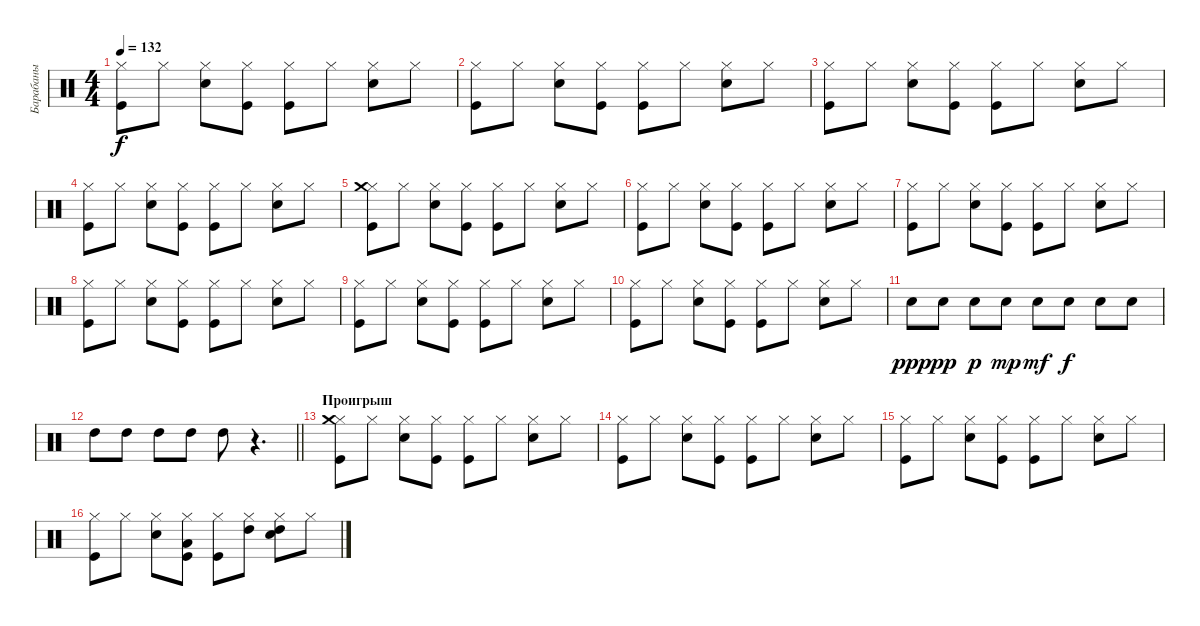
\track ("Барабаны" "Барабаны") {instrument percussion}
\staff {score}
\articulation defaults
\ts (4 4)
\tempo 132
\clef neutral
\ks c
("Kick (hit)" "Hi-Hat (closed)").8{dy f} "Hi-Hat (closed)".8 ("Snare (hit) 2" "Hi-Hat (closed)").8 ("Kick (hit)" "Hi-Hat (closed)").8 ("Kick (hit)" "Hi-Hat (closed)").8 "Hi-Hat (closed)".8 ("Snare (hit) 2" "Hi-Hat (closed)").8 "Hi-Hat (closed)".8 |
("Kick (hit)" "Hi-Hat (closed)").8 "Hi-Hat (closed)".8 ("Snare (hit) 2" "Hi-Hat (closed)").8 ("Kick (hit)" "Hi-Hat (closed)").8 ("Kick (hit)" "Hi-Hat (closed)").8 "Hi-Hat (closed)".8 ("Snare (hit) 2" "Hi-Hat (closed)").8 "Hi-Hat (closed)".8 |
("Kick (hit)" "Hi-Hat (closed)").8 "Hi-Hat (closed)".8 ("Snare (hit) 2" "Hi-Hat (closed)").8 ("Kick (hit)" "Hi-Hat (closed)").8 ("Kick (hit)" "Hi-Hat (closed)").8 "Hi-Hat (closed)".8 ("Snare (hit) 2" "Hi-Hat (closed)").8 "Hi-Hat (closed)".8 |
("Kick (hit)" "Hi-Hat (closed)").8 "Hi-Hat (closed)".8 ("Snare (hit) 2" "Hi-Hat (closed)").8 ("Kick (hit)" "Hi-Hat (closed)").8 ("Kick (hit)" "Hi-Hat (closed)").8 "Hi-Hat (closed)".8 ("Snare (hit) 2" "Hi-Hat (closed)").8 "Hi-Hat (closed)".8 |
("Kick (hit)" "Hi-Hat (closed)" "Crash medium (hit)").8 "Hi-Hat (closed)".8 ("Snare (hit) 2" "Hi-Hat (closed)").8 ("Kick (hit)" "Hi-Hat (closed)").8 ("Kick (hit)" "Hi-Hat (closed)").8 "Hi-Hat (closed)".8 ("Snare (hit) 2" "Hi-Hat (closed)").8 "Hi-Hat (closed)".8 |
("Kick (hit)" "Hi-Hat (closed)").8 "Hi-Hat (closed)".8 ("Snare (hit) 2" "Hi-Hat (closed)").8 ("Kick (hit)" "Hi-Hat (closed)").8 ("Kick (hit)" "Hi-Hat (closed)").8 "Hi-Hat (closed)".8 ("Snare (hit) 2" "Hi-Hat (closed)").8 "Hi-Hat (closed)".8 |
("Kick (hit)" "Hi-Hat (closed)").8 "Hi-Hat (closed)".8 ("Snare (hit) 2" "Hi-Hat (closed)").8 ("Kick (hit)" "Hi-Hat (closed)").8 ("Kick (hit)" "Hi-Hat (closed)").8 "Hi-Hat (closed)".8 ("Snare (hit) 2" "Hi-Hat (closed)").8 "Hi-Hat (closed)".8 |
("Kick (hit)" "Hi-Hat (closed)").8 "Hi-Hat (closed)".8 ("Snare (hit) 2" "Hi-Hat (closed)").8 ("Kick (hit)" "Hi-Hat (closed)").8 ("Kick (hit)" "Hi-Hat (closed)").8 "Hi-Hat (closed)".8 ("Snare (hit) 2" "Hi-Hat (closed)").8 "Hi-Hat (closed)".8 |
("Kick (hit)" "Hi-Hat (closed)").8 "Hi-Hat (closed)".8 ("Snare (hit) 2" "Hi-Hat (closed)").8 ("Kick (hit)" "Hi-Hat (closed)").8 ("Kick (hit)" "Hi-Hat (closed)").8 "Hi-Hat (closed)".8 ("Snare (hit) 2" "Hi-Hat (closed)").8 "Hi-Hat (closed)".8 |
("Kick (hit)" "Hi-Hat (closed)").8 "Hi-Hat (closed)".8 ("Snare (hit) 2" "Hi-Hat (closed)").8 ("Kick (hit)" "Hi-Hat (closed)").8 ("Kick (hit)" "Hi-Hat (closed)").8 "Hi-Hat (closed)".8 ("Snare (hit) 2" "Hi-Hat (closed)").8 "Hi-Hat (closed)".8 |
"Snare (hit) 2".8{dy ppp} "Snare (hit) 2".8{dy pp} "Snare (hit) 2".8{dy p} "Snare (hit) 2".8{dy mp} "Snare (hit) 2".8{dy mf} "Snare (hit) 2".8{dy f} "Snare (hit) 2".8 "Snare (hit) 2".8 |
\barLineRight lightlight "High Tom (hit)".8 "High Tom (hit)".8 "High Tom (hit)".8 "High Tom (hit)".8 "High Tom (hit)".8
r.4{d} |
\section ("" "Проигрыш")
("Kick (hit)" "Hi-Hat (closed)" "Crash medium (hit)").8 "Hi-Hat (closed)".8 ("Snare (hit) 2" "Hi-Hat (closed)").8 ("Kick (hit)" "Hi-Hat (closed)").8 ("Kick (hit)" "Hi-Hat (closed)").8 "Hi-Hat (closed)".8 ("Snare (hit) 2" "Hi-Hat (closed)").8 "Hi-Hat (closed)".8 |
("Kick (hit)" "Hi-Hat (closed)").8 "Hi-Hat (closed)".8 ("Snare (hit) 2" "Hi-Hat (closed)").8 ("Kick (hit)" "Hi-Hat (closed)").8 ("Kick (hit)" "Hi-Hat (closed)").8 "Hi-Hat (closed)".8 ("Snare (hit) 2" "Hi-Hat (closed)").8 "Hi-Hat (closed)".8 |
("Kick (hit)" "Hi-Hat (closed)").8 "Hi-Hat (closed)".8 ("Snare (hit) 2" "Hi-Hat (closed)").8 ("Kick (hit)" "Hi-Hat (closed)").8 ("Kick (hit)" "Hi-Hat (closed)").8 "Hi-Hat (closed)".8 ("Snare (hit) 2" "Hi-Hat (closed)").8 "Hi-Hat (closed)".8 |
("Kick (hit)" "Hi-Hat (closed)").8 "Hi-Hat (closed)".8 ("Snare (hit) 2" "Hi-Hat (closed)").8 ("Kick (hit)" "Hi-Hat (closed)" "Low Floor Tom (hit)").8 ("Kick (hit)" "Hi-Hat (closed)").8 ("Hi-Hat (closed)" "High Tom (hit)").8 ("Snare (hit) 2" "Hi-Hat (closed)" "High Tom (hit)").8 "Hi-Hat (closed)".8
